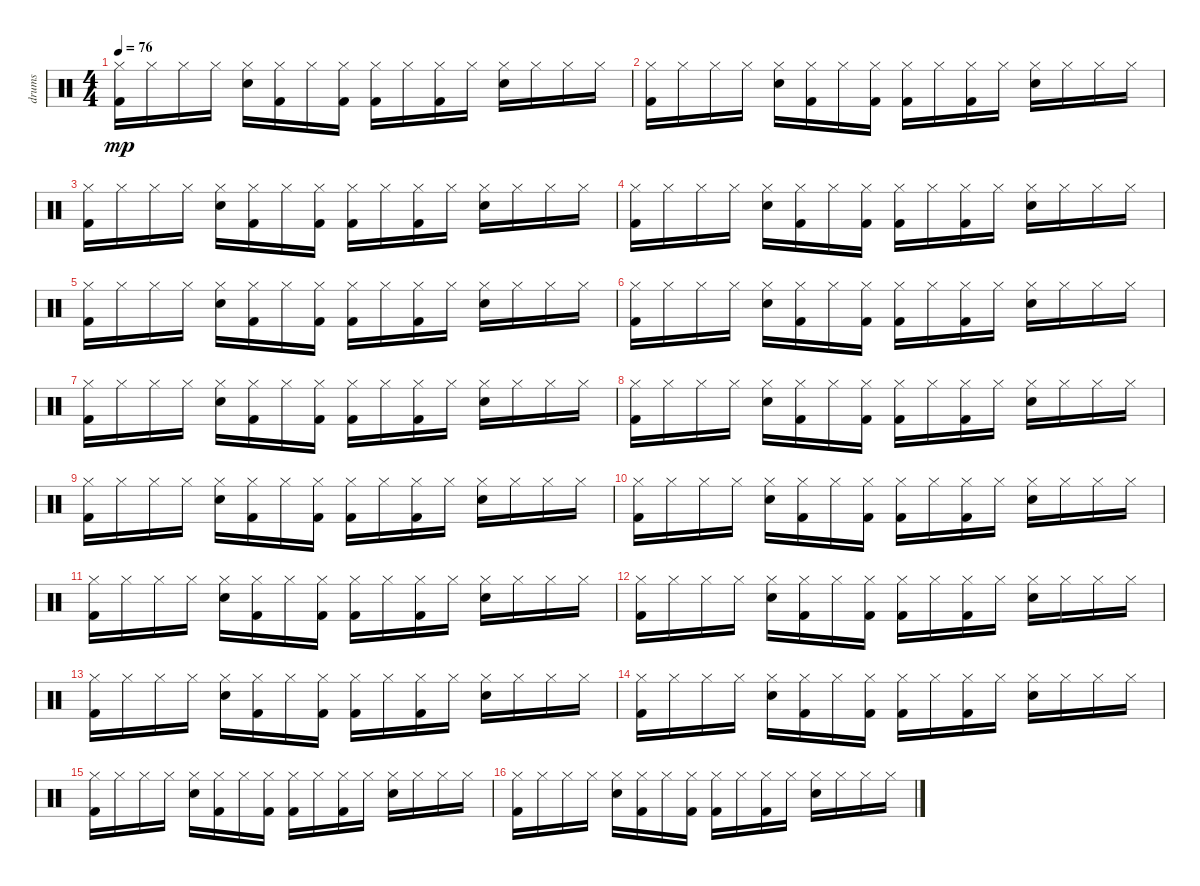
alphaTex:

\track ("drums" "drums") {instrument percussion}
\staff {score}
\articulation defaults
\ts (4 4)
\tempo 76
\clef neutral
\ks c
("Hi-Hat (closed)" "Kick (hit) 2").16{dy mp} "Hi-Hat (closed)".16 "Hi-Hat (closed)".16 "Hi-Hat (closed)".16 ("Hi-Hat (closed)" "Snare (hit) 2").16 ("Hi-Hat (closed)" "Kick (hit) 2").16 "Hi-Hat (closed)".16 ("Hi-Hat (closed)" "Kick (hit) 2").16 ("Hi-Hat (closed)" "Kick (hit) 2").16 "Hi-Hat (closed)".16 ("Hi-Hat (closed)" "Kick (hit) 2").16 "Hi-Hat (closed)".16 ("Snare (hit) 2" "Hi-Hat (closed)").16 "Hi-Hat (closed)".16 "Hi-Hat (closed)".16 "Hi-Hat (closed)".16 |
("Hi-Hat (closed)" "Kick (hit) 2").16 "Hi-Hat (closed)".16 "Hi-Hat (closed)".16 "Hi-Hat (closed)".16 ("Hi-Hat (closed)" "Snare (hit) 2").16 ("Hi-Hat (closed)" "Kick (hit) 2").16 "Hi-Hat (closed)".16 ("Hi-Hat (closed)" "Kick (hit) 2").16 ("Hi-Hat (closed)" "Kick (hit) 2").16 "Hi-Hat (closed)".16 ("Hi-Hat (closed)" "Kick (hit) 2").16 "Hi-Hat (closed)".16 ("Snare (hit) 2" "Hi-Hat (closed)").16 "Hi-Hat (closed)".16 "Hi-Hat (closed)".16 "Hi-Hat (closed)".16 |
("Hi-Hat (closed)" "Kick (hit) 2").16 "Hi-Hat (closed)".16 "Hi-Hat (closed)".16 "Hi-Hat (closed)".16 ("Hi-Hat (closed)" "Snare (hit) 2").16 ("Hi-Hat (closed)" "Kick (hit) 2").16 "Hi-Hat (closed)".16 ("Hi-Hat (closed)" "Kick (hit) 2").16 ("Hi-Hat (closed)" "Kick (hit) 2").16 "Hi-Hat (closed)".16 ("Hi-Hat (closed)" "Kick (hit) 2").16 "Hi-Hat (closed)".16 ("Snare (hit) 2" "Hi-Hat (closed)").16 "Hi-Hat (closed)".16 "Hi-Hat (closed)".16 "Hi-Hat (closed)".16 |
("Hi-Hat (closed)" "Kick (hit) 2").16 "Hi-Hat (closed)".16 "Hi-Hat (closed)".16 "Hi-Hat (closed)".16 ("Hi-Hat (closed)" "Snare (hit) 2").16 ("Hi-Hat (closed)" "Kick (hit) 2").16 "Hi-Hat (closed)".16 ("Hi-Hat (closed)" "Kick (hit) 2").16 ("Hi-Hat (closed)" "Kick (hit) 2").16 "Hi-Hat (closed)".16 ("Hi-Hat (closed)" "Kick (hit) 2").16 "Hi-Hat (closed)".16 ("Snare (hit) 2" "Hi-Hat (closed)").16 "Hi-Hat (closed)".16 "Hi-Hat (closed)".16 "Hi-Hat (closed)".16 |
("Hi-Hat (closed)" "Kick (hit) 2").16 "Hi-Hat (closed)".16 "Hi-Hat (closed)".16 "Hi-Hat (closed)".16 ("Hi-Hat (closed)" "Snare (hit) 2").16 ("Hi-Hat (closed)" "Kick (hit) 2").16 "Hi-Hat (closed)".16 ("Hi-Hat (closed)" "Kick (hit) 2").16 ("Hi-Hat (closed)" "Kick (hit) 2").16 "Hi-Hat (closed)".16 ("Hi-Hat (closed)" "Kick (hit) 2").16 "Hi-Hat (closed)".16 ("Snare (hit) 2" "Hi-Hat (closed)").16 "Hi-Hat (closed)".16 "Hi-Hat (closed)".16 "Hi-Hat (closed)".16 |
("Hi-Hat (closed)" "Kick (hit) 2").16 "Hi-Hat (closed)".16 "Hi-Hat (closed)".16 "Hi-Hat (closed)".16 ("Hi-Hat (closed)" "Snare (hit) 2").16 ("Hi-Hat (closed)" "Kick (hit) 2").16 "Hi-Hat (closed)".16 ("Hi-Hat (closed)" "Kick (hit) 2").16 ("Hi-Hat (closed)" "Kick (hit) 2").16 "Hi-Hat (closed)".16 ("Hi-Hat (closed)" "Kick (hit) 2").16 "Hi-Hat (closed)".16 ("Snare (hit) 2" "Hi-Hat (closed)").16 "Hi-Hat (closed)".16 "Hi-Hat (closed)".16 "Hi-Hat (closed)".16 |
("Hi-Hat (closed)" "Kick (hit) 2").16 "Hi-Hat (closed)".16 "Hi-Hat (closed)".16 "Hi-Hat (closed)".16 ("Hi-Hat (closed)" "Snare (hit) 2").16 ("Hi-Hat (closed)" "Kick (hit) 2").16 "Hi-Hat (closed)".16 ("Hi-Hat (closed)" "Kick (hit) 2").16 ("Hi-Hat (closed)" "Kick (hit) 2").16 "Hi-Hat (closed)".16 ("Hi-Hat (closed)" "Kick (hit) 2").16 "Hi-Hat (closed)".16 ("Snare (hit) 2" "Hi-Hat (closed)").16 "Hi-Hat (closed)".16 "Hi-Hat (closed)".16 "Hi-Hat (closed)".16 |
("Hi-Hat (closed)" "Kick (hit) 2").16 "Hi-Hat (closed)".16 "Hi-Hat (closed)".16 "Hi-Hat (closed)".16 ("Hi-Hat (closed)" "Snare (hit) 2").16 ("Hi-Hat (closed)" "Kick (hit) 2").16 "Hi-Hat (closed)".16 ("Hi-Hat (closed)" "Kick (hit) 2").16 ("Hi-Hat (closed)" "Kick (hit) 2").16 "Hi-Hat (closed)".16 ("Hi-Hat (closed)" "Kick (hit) 2").16 "Hi-Hat (closed)".16 ("Snare (hit) 2" "Hi-Hat (closed)").16 "Hi-Hat (closed)".16 "Hi-Hat (closed)".16 "Hi-Hat (closed)".16 |
("Hi-Hat (closed)" "Kick (hit) 2").16 "Hi-Hat (closed)".16 "Hi-Hat (closed)".16 "Hi-Hat (closed)".16 ("Hi-Hat (closed)" "Snare (hit) 2").16 ("Hi-Hat (closed)" "Kick (hit) 2").16 "Hi-Hat (closed)".16 ("Hi-Hat (closed)" "Kick (hit) 2").16 ("Hi-Hat (closed)" "Kick (hit) 2").16 "Hi-Hat (closed)".16 ("Hi-Hat (closed)" "Kick (hit) 2").16 "Hi-Hat (closed)".16 ("Snare (hit) 2" "Hi-Hat (closed)").16 "Hi-Hat (closed)".16 "Hi-Hat (closed)".16 "Hi-Hat (closed)".16 |
("Hi-Hat (closed)" "Kick (hit) 2").16 "Hi-Hat (closed)".16 "Hi-Hat (closed)".16 "Hi-Hat (closed)".16 ("Hi-Hat (closed)" "Snare (hit) 2").16 ("Hi-Hat (closed)" "Kick (hit) 2").16 "Hi-Hat (closed)".16 ("Hi-Hat (closed)" "Kick (hit) 2").16 ("Hi-Hat (closed)" "Kick (hit) 2").16 "Hi-Hat (closed)".16 ("Hi-Hat (closed)" "Kick (hit) 2").16 "Hi-Hat (closed)".16 ("Snare (hit) 2" "Hi-Hat (closed)").16 "Hi-Hat (closed)".16 "Hi-Hat (closed)".16 "Hi-Hat (closed)".16 |
("Hi-Hat (closed)" "Kick (hit) 2").16 "Hi-Hat (closed)".16 "Hi-Hat (closed)".16 "Hi-Hat (closed)".16 ("Hi-Hat (closed)" "Snare (hit) 2").16 ("Hi-Hat (closed)" "Kick (hit) 2").16 "Hi-Hat (closed)".16 ("Hi-Hat (closed)" "Kick (hit) 2").16 ("Hi-Hat (closed)" "Kick (hit) 2").16 "Hi-Hat (closed)".16 ("Hi-Hat (closed)" "Kick (hit) 2").16 "Hi-Hat (closed)".16 ("Snare (hit) 2" "Hi-Hat (closed)").16 "Hi-Hat (closed)".16 "Hi-Hat (closed)".16 "Hi-Hat (closed)".16 |
("Hi-Hat (closed)" "Kick (hit) 2").16 "Hi-Hat (closed)".16 "Hi-Hat (closed)".16 "Hi-Hat (closed)".16 ("Hi-Hat (closed)" "Snare (hit) 2").16 ("Hi-Hat (closed)" "Kick (hit) 2").16 "Hi-Hat (closed)".16 ("Hi-Hat (closed)" "Kick (hit) 2").16 ("Hi-Hat (closed)" "Kick (hit) 2").16 "Hi-Hat (closed)".16 ("Hi-Hat (closed)" "Kick (hit) 2").16 "Hi-Hat (closed)".16 ("Snare (hit) 2" "Hi-Hat (closed)").16 "Hi-Hat (closed)".16 "Hi-Hat (closed)".16 "Hi-Hat (closed)".16 |
("Hi-Hat (closed)" "Kick (hit) 2").16 "Hi-Hat (closed)".16 "Hi-Hat (closed)".16 "Hi-Hat (closed)".16 ("Hi-Hat (closed)" "Snare (hit) 2").16 ("Hi-Hat (closed)" "Kick (hit) 2").16 "Hi-Hat (closed)".16 ("Hi-Hat (closed)" "Kick (hit) 2").16 ("Hi-Hat (closed)" "Kick (hit) 2").16 "Hi-Hat (closed)".16 ("Hi-Hat (closed)" "Kick (hit) 2").16 "Hi-Hat (closed)".16 ("Snare (hit) 2" "Hi-Hat (closed)").16 "Hi-Hat (closed)".16 "Hi-Hat (closed)".16 "Hi-Hat (closed)".16 |
("Hi-Hat (closed)" "Kick (hit) 2").16 "Hi-Hat (closed)".16 "Hi-Hat (closed)".16 "Hi-Hat (closed)".16 ("Hi-Hat (closed)" "Snare (hit) 2").16 ("Hi-Hat (closed)" "Kick (hit) 2").16 "Hi-Hat (closed)".16 ("Hi-Hat (closed)" "Kick (hit) 2").16 ("Hi-Hat (closed)" "Kick (hit) 2").16 "Hi-Hat (closed)".16 ("Hi-Hat (closed)" "Kick (hit) 2").16 "Hi-Hat (closed)".16 ("Snare (hit) 2" "Hi-Hat (closed)").16 "Hi-Hat (closed)".16 "Hi-Hat (closed)".16 "Hi-Hat (closed)".16 |
("Hi-Hat (closed)" "Kick (hit) 2").16 "Hi-Hat (closed)".16 "Hi-Hat (closed)".16 "Hi-Hat (closed)".16 ("Hi-Hat (closed)" "Snare (hit) 2").16 ("Hi-Hat (closed)" "Kick (hit) 2").16 "Hi-Hat (closed)".16 ("Hi-Hat (closed)" "Kick (hit) 2").16 ("Hi-Hat (closed)" "Kick (hit) 2").16 "Hi-Hat (closed)".16 ("Hi-Hat (closed)" "Kick (hit) 2").16 "Hi-Hat (closed)".16 ("Snare (hit) 2" "Hi-Hat (closed)").16 "Hi-Hat (closed)".16 "Hi-Hat (closed)".16 "Hi-Hat (closed)".16 |
("Hi-Hat (closed)" "Kick (hit) 2").16 "Hi-Hat (closed)".16 "Hi-Hat (closed)".16 "Hi-Hat (closed)".16 ("Hi-Hat (closed)" "Snare (hit) 2").16 ("Hi-Hat (closed)" "Kick (hit) 2").16 "Hi-Hat (closed)".16 ("Hi-Hat (closed)" "Kick (hit) 2").16 ("Hi-Hat (closed)" "Kick (hit) 2").16 "Hi-Hat (closed)".16 ("Hi-Hat (closed)" "Kick (hit) 2").16 "Hi-Hat (closed)".16 ("Snare (hit) 2" "Hi-Hat (closed)").16 "Hi-Hat (closed)".16 "Hi-Hat (closed)".16 "Hi-Hat (closed)".16
